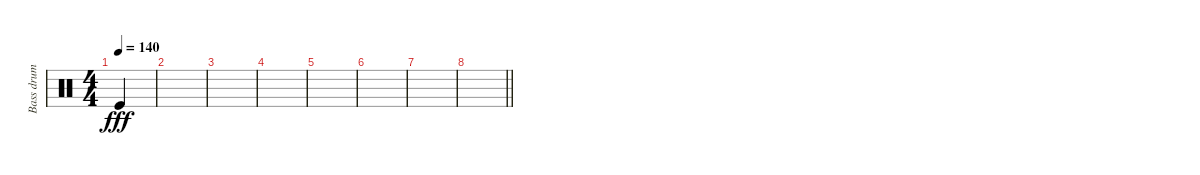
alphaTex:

\track ("Bass drum " "Bass drum ") {instrument percussion}
\staff {score}
\articulation defaults
\ts (4 4)
\tempo 140
\clef neutral
\ks c "Kick (hit)".4{dy fff}
|
|
|
|
|
|
|
\barLineRight lightlight
